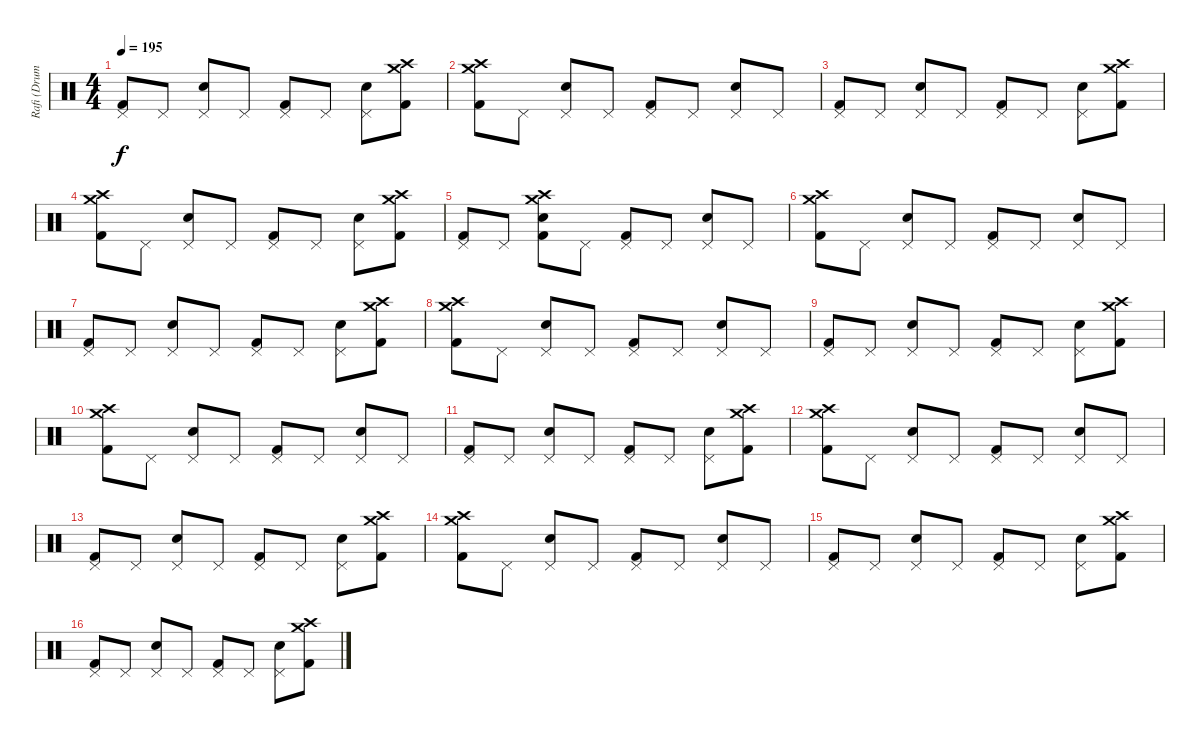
\track ("Rafi (Drums)" "Rafi (Drum") {instrument percussion}
\staff {score}
\articulation defaults
\ts (4 4)
\tempo 195
\clef neutral
\ks c
("Pedal Hi-Hat (hit)" "Kick (hit) 2").8{dy f} "Pedal Hi-Hat (hit)".8 ("Pedal Hi-Hat (hit)" "Snare (hit) 2").8 "Pedal Hi-Hat (hit)".8 ("Pedal Hi-Hat (hit)" "Kick (hit) 2").8 "Pedal Hi-Hat (hit)".8 ("Pedal Hi-Hat (hit)" "Snare (hit) 2").8 ("Crash medium (hit)" "Crash high (hit)" "Kick (hit) 2").8 |
("Crash medium (hit)" "Crash high (hit)" "Kick (hit) 2").8 "Pedal Hi-Hat (hit)".8 ("Pedal Hi-Hat (hit)" "Snare (hit) 2").8 "Pedal Hi-Hat (hit)".8 ("Pedal Hi-Hat (hit)" "Kick (hit) 2").8 "Pedal Hi-Hat (hit)".8 ("Pedal Hi-Hat (hit)" "Snare (hit) 2").8 "Pedal Hi-Hat (hit)".8 |
("Pedal Hi-Hat (hit)" "Kick (hit) 2").8 "Pedal Hi-Hat (hit)".8 ("Pedal Hi-Hat (hit)" "Snare (hit) 2").8 "Pedal Hi-Hat (hit)".8 ("Pedal Hi-Hat (hit)" "Kick (hit) 2").8 "Pedal Hi-Hat (hit)".8 ("Pedal Hi-Hat (hit)" "Snare (hit) 2").8 ("Crash medium (hit)" "Crash high (hit)" "Kick (hit) 2").8 |
("Crash medium (hit)" "Crash high (hit)" "Kick (hit) 2").8 "Pedal Hi-Hat (hit)".8 ("Pedal Hi-Hat (hit)" "Snare (hit) 2").8 "Pedal Hi-Hat (hit)".8 ("Pedal Hi-Hat (hit)" "Kick (hit) 2").8 "Pedal Hi-Hat (hit)".8 ("Pedal Hi-Hat (hit)" "Snare (hit) 2").8 ("Crash medium (hit)" "Crash high (hit)" "Kick (hit) 2").8 |
("Pedal Hi-Hat (hit)" "Kick (hit) 2").8 "Pedal Hi-Hat (hit)".8 ("Crash medium (hit)" "Crash high (hit)" "Snare (hit) 2" "Kick (hit) 2").8 "Pedal Hi-Hat (hit)".8 ("Pedal Hi-Hat (hit)" "Kick (hit) 2").8 "Pedal Hi-Hat (hit)".8 ("Pedal Hi-Hat (hit)" "Snare (hit) 2").8 "Pedal Hi-Hat (hit)".8 |
("Crash medium (hit)" "Crash high (hit)" "Kick (hit) 2").8 "Pedal Hi-Hat (hit)".8 ("Pedal Hi-Hat (hit)" "Snare (hit) 2").8 "Pedal Hi-Hat (hit)".8 ("Pedal Hi-Hat (hit)" "Kick (hit) 2").8 "Pedal Hi-Hat (hit)".8 ("Pedal Hi-Hat (hit)" "Snare (hit) 2").8 "Pedal Hi-Hat (hit)".8 |
("Pedal Hi-Hat (hit)" "Kick (hit) 2").8 "Pedal Hi-Hat (hit)".8 ("Pedal Hi-Hat (hit)" "Snare (hit) 2").8 "Pedal Hi-Hat (hit)".8 ("Pedal Hi-Hat (hit)" "Kick (hit) 2").8 "Pedal Hi-Hat (hit)".8 ("Pedal Hi-Hat (hit)" "Snare (hit) 2").8 ("Crash medium (hit)" "Crash high (hit)" "Kick (hit) 2").8 |
("Crash medium (hit)" "Crash high (hit)" "Kick (hit) 2").8 "Pedal Hi-Hat (hit)".8 ("Pedal Hi-Hat (hit)" "Snare (hit) 2").8 "Pedal Hi-Hat (hit)".8 ("Pedal Hi-Hat (hit)" "Kick (hit) 2").8 "Pedal Hi-Hat (hit)".8 ("Pedal Hi-Hat (hit)" "Snare (hit) 2").8 "Pedal Hi-Hat (hit)".8 |
("Pedal Hi-Hat (hit)" "Kick (hit) 2").8 "Pedal Hi-Hat (hit)".8 ("Pedal Hi-Hat (hit)" "Snare (hit) 2").8 "Pedal Hi-Hat (hit)".8 ("Pedal Hi-Hat (hit)" "Kick (hit) 2").8 "Pedal Hi-Hat (hit)".8 ("Pedal Hi-Hat (hit)" "Snare (hit) 2").8 ("Crash medium (hit)" "Crash high (hit)" "Kick (hit) 2").8 |
("Crash medium (hit)" "Crash high (hit)" "Kick (hit) 2").8 "Pedal Hi-Hat (hit)".8 ("Pedal Hi-Hat (hit)" "Snare (hit) 2").8 "Pedal Hi-Hat (hit)".8 ("Pedal Hi-Hat (hit)" "Kick (hit) 2").8 "Pedal Hi-Hat (hit)".8 ("Pedal Hi-Hat (hit)" "Snare (hit) 2").8 "Pedal Hi-Hat (hit)".8 |
("Pedal Hi-Hat (hit)" "Kick (hit) 2").8 "Pedal Hi-Hat (hit)".8 ("Pedal Hi-Hat (hit)" "Snare (hit) 2").8 "Pedal Hi-Hat (hit)".8 ("Pedal Hi-Hat (hit)" "Kick (hit) 2").8 "Pedal Hi-Hat (hit)".8 ("Pedal Hi-Hat (hit)" "Snare (hit) 2").8 ("Crash medium (hit)" "Crash high (hit)" "Kick (hit) 2").8 |
("Crash medium (hit)" "Crash high (hit)" "Kick (hit) 2").8 "Pedal Hi-Hat (hit)".8 ("Pedal Hi-Hat (hit)" "Snare (hit) 2").8 "Pedal Hi-Hat (hit)".8 ("Pedal Hi-Hat (hit)" "Kick (hit) 2").8 "Pedal Hi-Hat (hit)".8 ("Pedal Hi-Hat (hit)" "Snare (hit) 2").8 "Pedal Hi-Hat (hit)".8 |
("Pedal Hi-Hat (hit)" "Kick (hit) 2").8 "Pedal Hi-Hat (hit)".8 ("Pedal Hi-Hat (hit)" "Snare (hit) 2").8 "Pedal Hi-Hat (hit)".8 ("Pedal Hi-Hat (hit)" "Kick (hit) 2").8 "Pedal Hi-Hat (hit)".8 ("Pedal Hi-Hat (hit)" "Snare (hit) 2").8 ("Crash medium (hit)" "Crash high (hit)" "Kick (hit) 2").8 |
("Crash medium (hit)" "Crash high (hit)" "Kick (hit) 2").8 "Pedal Hi-Hat (hit)".8 ("Pedal Hi-Hat (hit)" "Snare (hit) 2").8 "Pedal Hi-Hat (hit)".8 ("Pedal Hi-Hat (hit)" "Kick (hit) 2").8 "Pedal Hi-Hat (hit)".8 ("Pedal Hi-Hat (hit)" "Snare (hit) 2").8 "Pedal Hi-Hat (hit)".8 |
("Pedal Hi-Hat (hit)" "Kick (hit) 2").8 "Pedal Hi-Hat (hit)".8 ("Pedal Hi-Hat (hit)" "Snare (hit) 2").8 "Pedal Hi-Hat (hit)".8 ("Pedal Hi-Hat (hit)" "Kick (hit) 2").8 "Pedal Hi-Hat (hit)".8 ("Pedal Hi-Hat (hit)" "Snare (hit) 2").8 ("Crash medium (hit)" "Crash high (hit)" "Kick (hit) 2").8 |
("Pedal Hi-Hat (hit)" "Kick (hit) 2").8 "Pedal Hi-Hat (hit)".8 ("Pedal Hi-Hat (hit)" "Snare (hit) 2").8 "Pedal Hi-Hat (hit)".8 ("Pedal Hi-Hat (hit)" "Kick (hit) 2").8 "Pedal Hi-Hat (hit)".8 ("Pedal Hi-Hat (hit)" "Snare (hit) 2").8 ("Crash medium (hit)" "Crash high (hit)" "Kick (hit) 2").8
